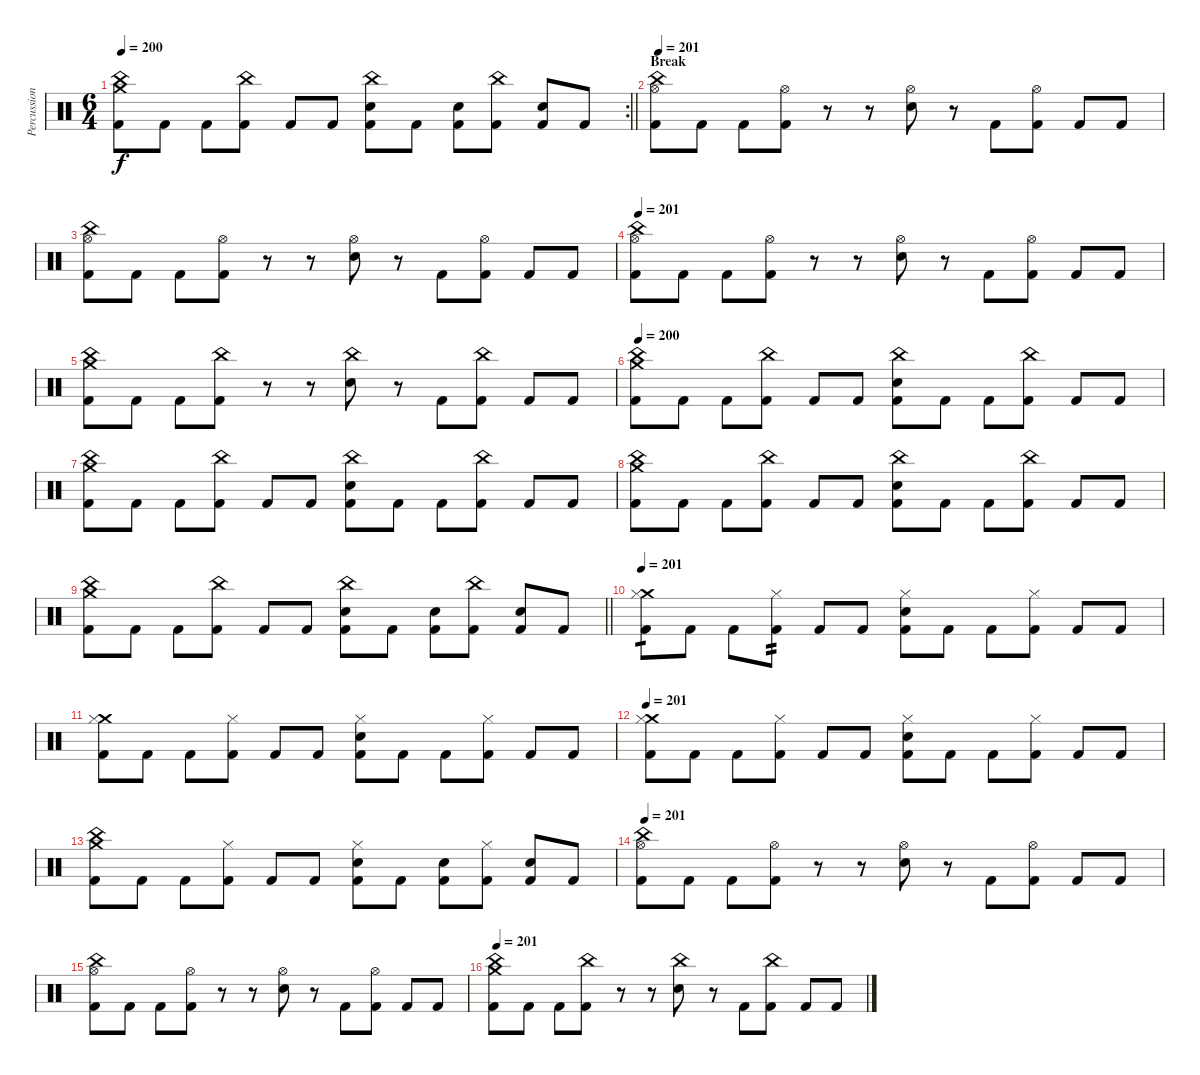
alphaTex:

\track ("Percussion" "Percussion") {instrument percussion}
\staff {score}
\articulation defaults
\rc 2
\ts (6 4)
\tempo 200
\clef neutral
\barLineRight lightlight
\ks c
("Crash medium (hit)" "China (hit)" "Kick (hit) 2").8{dy f} "Kick (hit) 2".8 "Kick (hit) 2".8 ("China (hit)" "Kick (hit) 2").8 "Kick (hit) 2".8 "Kick (hit) 2".8 ("China (hit)" "Electric Snare (hit)" "Kick (hit) 2").8 "Kick (hit) 2".8 ("Electric Snare (hit)" "Kick (hit) 2").8 ("China (hit)" "Kick (hit) 2").8 ("Electric Snare (hit)" "Kick (hit) 2").8 "Kick (hit) 2".8 |
\section ("" "Break")
\tempo 201
("Hi-Hat (open)" "China (hit)" "Kick (hit) 2").8 "Kick (hit) 2".8 "Kick (hit) 2".8 ("Hi-Hat (open)" "Kick (hit) 2").8 r.8 r.8 ("Hi-Hat (open)" "Electric Snare (hit)").8 r.8 "Kick (hit) 2".8 ("Hi-Hat (open)" "Kick (hit) 2").8 "Kick (hit) 2".8 "Kick (hit) 2".8 |
("Hi-Hat (open)" "China (hit)" "Kick (hit) 2").8 "Kick (hit) 2".8 "Kick (hit) 2".8 ("Hi-Hat (open)" "Kick (hit) 2").8 r.8 r.8 ("Hi-Hat (open)" "Electric Snare (hit)").8 r.8 "Kick (hit) 2".8 ("Hi-Hat (open)" "Kick (hit) 2").8 "Kick (hit) 2".8 "Kick (hit) 2".8 |
\tempo 201
("Hi-Hat (open)" "China (hit)" "Kick (hit) 2").8 "Kick (hit) 2".8 "Kick (hit) 2".8 ("Hi-Hat (open)" "Kick (hit) 2").8 r.8 r.8 ("Hi-Hat (open)" "Electric Snare (hit)").8 r.8 "Kick (hit) 2".8 ("Hi-Hat (open)" "Kick (hit) 2").8 "Kick (hit) 2".8 "Kick (hit) 2".8 |
("Crash medium (hit)" "China (hit)" "Kick (hit) 2").8 "Kick (hit) 2".8 "Kick (hit) 2".8 ("China (hit)" "Kick (hit) 2").8 r.8 r.8 ("China (hit)" "Electric Snare (hit)").8 r.8 "Kick (hit) 2".8 ("China (hit)" "Kick (hit) 2").8 "Kick (hit) 2".8 "Kick (hit) 2".8 |
\tempo 200
("Crash medium (hit)" "China (hit)" "Kick (hit) 2").8 "Kick (hit) 2".8 "Kick (hit) 2".8 ("China (hit)" "Kick (hit) 2").8 "Kick (hit) 2".8 "Kick (hit) 2".8 ("China (hit)" "Electric Snare (hit)" "Kick (hit) 2").8 "Kick (hit) 2".8 "Kick (hit) 2".8 ("China (hit)" "Kick (hit) 2").8 "Kick (hit) 2".8 "Kick (hit) 2".8 |
("Crash medium (hit)" "China (hit)" "Kick (hit) 2").8 "Kick (hit) 2".8 "Kick (hit) 2".8 ("China (hit)" "Kick (hit) 2").8 "Kick (hit) 2".8 "Kick (hit) 2".8 ("China (hit)" "Electric Snare (hit)" "Kick (hit) 2").8 "Kick (hit) 2".8 "Kick (hit) 2".8 ("China (hit)" "Kick (hit) 2").8 "Kick (hit) 2".8 "Kick (hit) 2".8 |
("Crash medium (hit)" "China (hit)" "Kick (hit) 2").8 "Kick (hit) 2".8 "Kick (hit) 2".8 ("China (hit)" "Kick (hit) 2").8 "Kick (hit) 2".8 "Kick (hit) 2".8 ("China (hit)" "Electric Snare (hit)" "Kick (hit) 2").8 "Kick (hit) 2".8 "Kick (hit) 2".8 ("China (hit)" "Kick (hit) 2").8 "Kick (hit) 2".8 "Kick (hit) 2".8 |
\barLineRight lightlight
("Crash medium (hit)" "China (hit)" "Kick (hit) 2").8 "Kick (hit) 2".8 "Kick (hit) 2".8 ("China (hit)" "Kick (hit) 2").8 "Kick (hit) 2".8 "Kick (hit) 2".8 ("China (hit)" "Electric Snare (hit)" "Kick (hit) 2").8 "Kick (hit) 2".8 ("Electric Snare (hit)" "Kick (hit) 2").8 ("China (hit)" "Kick (hit) 2").8 ("Electric Snare (hit)" "Kick (hit) 2").8 "Kick (hit) 2".8 |
\tempo 201
("Crash medium (hit)" "Hi-Hat (closed)" "Kick (hit) 2").8{tp 1} "Kick (hit) 2".8 "Kick (hit) 2".8 ("Hi-Hat (closed)" "Kick (hit) 2").8{tp 2} "Kick (hit) 2".8 "Kick (hit) 2".8 ("Hi-Hat (closed)" "Electric Snare (hit)" "Kick (hit) 2").8 "Kick (hit) 2".8 "Kick (hit) 2".8 ("Hi-Hat (closed)" "Kick (hit) 2").8 "Kick (hit) 2".8 "Kick (hit) 2".8 |
("Crash medium (hit)" "Hi-Hat (closed)" "Kick (hit) 2").8 "Kick (hit) 2".8 "Kick (hit) 2".8 ("Hi-Hat (closed)" "Kick (hit) 2").8 "Kick (hit) 2".8 "Kick (hit) 2".8 ("Hi-Hat (closed)" "Electric Snare (hit)" "Kick (hit) 2").8 "Kick (hit) 2".8 "Kick (hit) 2".8 ("Hi-Hat (closed)" "Kick (hit) 2").8 "Kick (hit) 2".8 "Kick (hit) 2".8 |
\tempo 201
("Crash medium (hit)" "Hi-Hat (closed)" "Kick (hit) 2").8 "Kick (hit) 2".8 "Kick (hit) 2".8 ("Hi-Hat (closed)" "Kick (hit) 2").8 "Kick (hit) 2".8 "Kick (hit) 2".8 ("Hi-Hat (closed)" "Electric Snare (hit)" "Kick (hit) 2").8 "Kick (hit) 2".8 "Kick (hit) 2".8 ("Hi-Hat (closed)" "Kick (hit) 2").8 "Kick (hit) 2".8 "Kick (hit) 2".8 |
("Crash medium (hit)" "China (hit)" "Kick (hit) 2").8 "Kick (hit) 2".8 "Kick (hit) 2".8 ("Hi-Hat (closed)" "Kick (hit) 2").8 "Kick (hit) 2".8 "Kick (hit) 2".8 ("Hi-Hat (closed)" "Electric Snare (hit)" "Kick (hit) 2").8 "Kick (hit) 2".8 ("Electric Snare (hit)" "Kick (hit) 2").8 ("Hi-Hat (closed)" "Kick (hit) 2").8 ("Electric Snare (hit)" "Kick (hit) 2").8 "Kick (hit) 2".8 |
\tempo 201
("Hi-Hat (open)" "China (hit)" "Kick (hit) 2").8 "Kick (hit) 2".8 "Kick (hit) 2".8 ("Hi-Hat (open)" "Kick (hit) 2").8 r.8 r.8 ("Hi-Hat (open)" "Electric Snare (hit)").8 r.8 "Kick (hit) 2".8 ("Hi-Hat (open)" "Kick (hit) 2").8 "Kick (hit) 2".8 "Kick (hit) 2".8 |
("Hi-Hat (open)" "China (hit)" "Kick (hit) 2").8 "Kick (hit) 2".8 "Kick (hit) 2".8 ("Hi-Hat (open)" "Kick (hit) 2").8 r.8 r.8 ("Hi-Hat (open)" "Electric Snare (hit)").8 r.8 "Kick (hit) 2".8 ("Hi-Hat (open)" "Kick (hit) 2").8 "Kick (hit) 2".8 "Kick (hit) 2".8 |
\tempo 201
("Crash medium (hit)" "China (hit)" "Kick (hit) 2").8 "Kick (hit) 2".8 "Kick (hit) 2".8 ("China (hit)" "Kick (hit) 2").8 r.8 r.8 ("China (hit)" "Electric Snare (hit)").8 r.8 "Kick (hit) 2".8 ("China (hit)" "Kick (hit) 2").8 "Kick (hit) 2".8 "Kick (hit) 2".8
